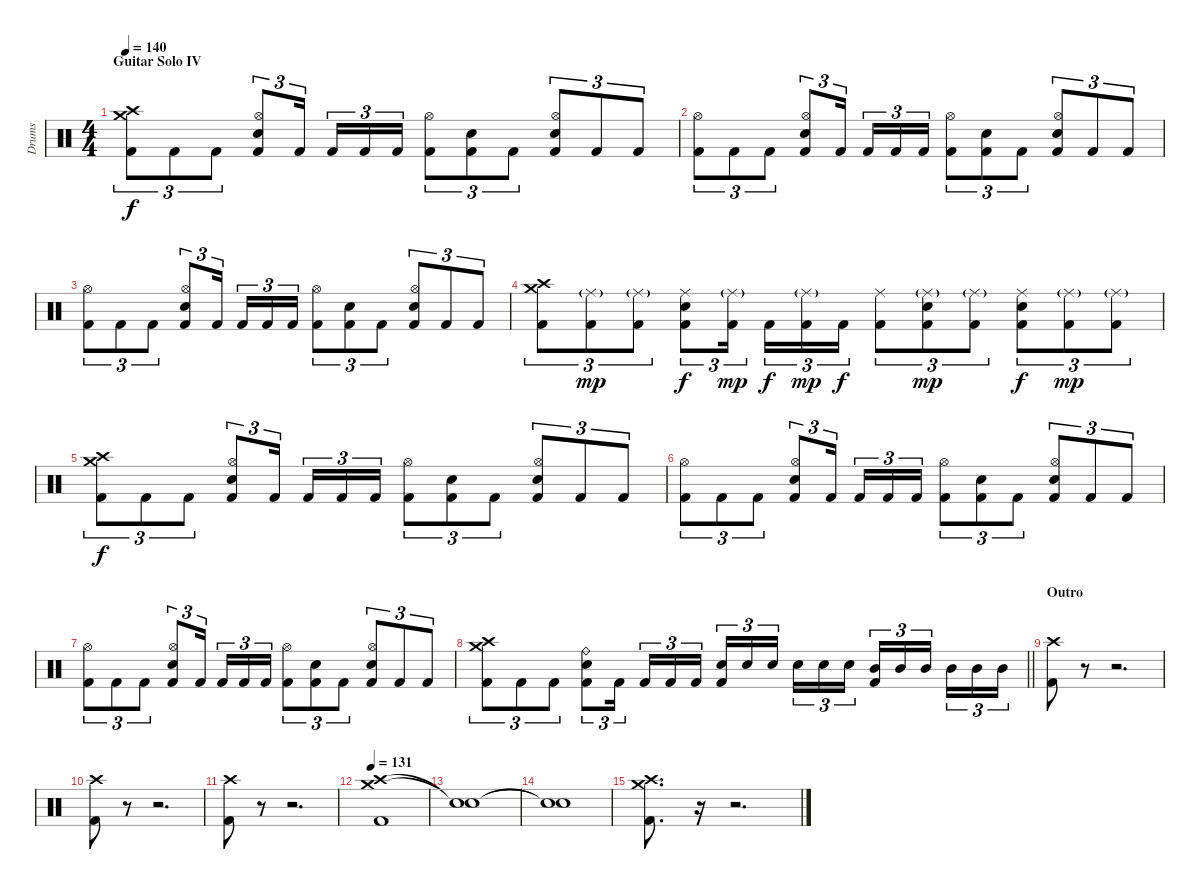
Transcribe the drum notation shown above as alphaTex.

\track ("Drums" "Drums") {instrument percussion}
\staff {score}
\articulation defaults
\ts (4 4)
\section ("" "Guitar Solo IV")
\tempo 140
\clef neutral
\ks c
("Crash medium (hit)" "Crash high (hit)" "Kick (hit) 2").8{tu (3 2) dy f} "Kick (hit) 2".8{tu (3 2)} "Kick (hit) 2".8{tu (3 2)} ("Hi-Hat (open)" "Electric Snare (hit)" "Kick (hit) 2").8{tu (3 2)} "Kick (hit) 2".16{tu (3 2) beam splitsecondary} "Kick (hit) 2".16{tu (3 2)} "Kick (hit) 2".16{tu (3 2)} "Kick (hit) 2".16{tu (3 2)} ("Hi-Hat (open)" "Kick (hit) 2").8{tu (3 2)} ("Electric Snare (hit)" "Kick (hit) 2").8{tu (3 2)} "Kick (hit) 2".8{tu (3 2)} ("Hi-Hat (open)" "Electric Snare (hit)" "Kick (hit) 2").8{tu (3 2)} "Kick (hit) 2".8{tu (3 2)} "Kick (hit) 2".8{tu (3 2)} |
("Hi-Hat (open)" "Kick (hit) 2").8{tu (3 2)} "Kick (hit) 2".8{tu (3 2)} "Kick (hit) 2".8{tu (3 2)} ("Hi-Hat (open)" "Electric Snare (hit)" "Kick (hit) 2").8{tu (3 2)} "Kick (hit) 2".16{tu (3 2) beam splitsecondary} "Kick (hit) 2".16{tu (3 2)} "Kick (hit) 2".16{tu (3 2)} "Kick (hit) 2".16{tu (3 2)} ("Hi-Hat (open)" "Kick (hit) 2").8{tu (3 2)} ("Electric Snare (hit)" "Kick (hit) 2").8{tu (3 2)} "Kick (hit) 2".8{tu (3 2)} ("Hi-Hat (open)" "Electric Snare (hit)" "Kick (hit) 2").8{tu (3 2)} "Kick (hit) 2".8{tu (3 2)} "Kick (hit) 2".8{tu (3 2)} |
("Hi-Hat (open)" "Kick (hit) 2").8{tu (3 2)} "Kick (hit) 2".8{tu (3 2)} "Kick (hit) 2".8{tu (3 2)} ("Hi-Hat (open)" "Electric Snare (hit)" "Kick (hit) 2").8{tu (3 2)} "Kick (hit) 2".16{tu (3 2) beam splitsecondary} "Kick (hit) 2".16{tu (3 2)} "Kick (hit) 2".16{tu (3 2)} "Kick (hit) 2".16{tu (3 2)} ("Hi-Hat (open)" "Kick (hit) 2").8{tu (3 2)} ("Electric Snare (hit)" "Kick (hit) 2").8{tu (3 2)} "Kick (hit) 2".8{tu (3 2)} ("Hi-Hat (open)" "Electric Snare (hit)" "Kick (hit) 2").8{tu (3 2)} "Kick (hit) 2".8{tu (3 2)} "Kick (hit) 2".8{tu (3 2)} |
("Crash medium (hit)" "Crash high (hit)" "Kick (hit) 2").8{tu (3 2)} ("Ride (middle)"{g} "Kick (hit) 2").8{tu (3 2) dy mp} ("Ride (middle)"{g} "Kick (hit) 2").8{tu (3 2)} ("Ride (middle)" "Electric Snare (hit)" "Kick (hit) 2").8{tu (3 2) dy f} ("Ride (middle)"{g} "Kick (hit) 2").16{tu (3 2) dy mp beam splitsecondary} "Kick (hit) 2".16{tu (3 2) dy f} ("Ride (middle)"{g} "Kick (hit) 2").16{tu (3 2) dy mp} "Kick (hit) 2".16{tu (3 2) dy f} ("Ride (middle)" "Kick (hit) 2").8{tu (3 2)} ("Ride (middle)"{g} "Electric Snare (hit)" "Kick (hit) 2").8{tu (3 2) dy mp} ("Ride (middle)"{g} "Kick (hit) 2").8{tu (3 2)} ("Ride (middle)" "Electric Snare (hit)" "Kick (hit) 2").8{tu (3 2) dy f} ("Ride (middle)"{g} "Kick (hit) 2").8{tu (3 2) dy mp} ("Ride (middle)"{g} "Kick (hit) 2").8{tu (3 2)} |
("Crash medium (hit)" "Crash high (hit)" "Kick (hit) 2").8{tu (3 2) dy f} "Kick (hit) 2".8{tu (3 2)} "Kick (hit) 2".8{tu (3 2)} ("Hi-Hat (open)" "Electric Snare (hit)" "Kick (hit) 2").8{tu (3 2)} "Kick (hit) 2".16{tu (3 2) beam splitsecondary} "Kick (hit) 2".16{tu (3 2)} "Kick (hit) 2".16{tu (3 2)} "Kick (hit) 2".16{tu (3 2)} ("Hi-Hat (open)" "Kick (hit) 2").8{tu (3 2)} ("Electric Snare (hit)" "Kick (hit) 2").8{tu (3 2)} "Kick (hit) 2".8{tu (3 2)} ("Hi-Hat (open)" "Electric Snare (hit)" "Kick (hit) 2").8{tu (3 2)} "Kick (hit) 2".8{tu (3 2)} "Kick (hit) 2".8{tu (3 2)} |
("Hi-Hat (open)" "Kick (hit) 2").8{tu (3 2)} "Kick (hit) 2".8{tu (3 2)} "Kick (hit) 2".8{tu (3 2)} ("Hi-Hat (open)" "Electric Snare (hit)" "Kick (hit) 2").8{tu (3 2)} "Kick (hit) 2".16{tu (3 2) beam splitsecondary} "Kick (hit) 2".16{tu (3 2)} "Kick (hit) 2".16{tu (3 2)} "Kick (hit) 2".16{tu (3 2)} ("Hi-Hat (open)" "Kick (hit) 2").8{tu (3 2)} ("Electric Snare (hit)" "Kick (hit) 2").8{tu (3 2)} "Kick (hit) 2".8{tu (3 2)} ("Hi-Hat (open)" "Electric Snare (hit)" "Kick (hit) 2").8{tu (3 2)} "Kick (hit) 2".8{tu (3 2)} "Kick (hit) 2".8{tu (3 2)} |
("Hi-Hat (open)" "Kick (hit) 2").8{tu (3 2)} "Kick (hit) 2".8{tu (3 2)} "Kick (hit) 2".8{tu (3 2)} ("Hi-Hat (open)" "Electric Snare (hit)" "Kick (hit) 2").8{tu (3 2)} "Kick (hit) 2".16{tu (3 2) beam splitsecondary} "Kick (hit) 2".16{tu (3 2)} "Kick (hit) 2".16{tu (3 2)} "Kick (hit) 2".16{tu (3 2)} ("Hi-Hat (open)" "Kick (hit) 2").8{tu (3 2)} ("Electric Snare (hit)" "Kick (hit) 2").8{tu (3 2)} "Kick (hit) 2".8{tu (3 2)} ("Hi-Hat (open)" "Electric Snare (hit)" "Kick (hit) 2").8{tu (3 2)} "Kick (hit) 2".8{tu (3 2)} "Kick (hit) 2".8{tu (3 2)} |
\barLineRight lightlight
("Crash medium (hit)" "Crash high (hit)" "Kick (hit) 2").8{tu (3 2)} "Kick (hit) 2".8{tu (3 2)} "Kick (hit) 2".8{tu (3 2)} ("Ride (bell)" "Electric Snare (hit)" "Kick (hit) 2").8{tu (3 2)} "Kick (hit) 2".16{tu (3 2) beam splitsecondary} "Kick (hit) 2".16{tu (3 2)} "Kick (hit) 2".16{tu (3 2)} "Kick (hit) 2".16{tu (3 2)} ("Electric Snare (hit)" "Kick (hit) 2").16{tu (3 2)} "Electric Snare (hit)".16{tu (3 2)} "Electric Snare (hit)".16{tu (3 2) beam splitsecondary} "Electric Snare (hit)".16{tu (3 2)} "Electric Snare (hit)".16{tu (3 2)} "Electric Snare (hit)".16{tu (3 2)} ("Mid Tom (hit)" "Kick (hit) 2").16{tu (3 2)} "Mid Tom (hit)".16{tu (3 2)} "Mid Tom (hit)".16{tu (3 2) beam splitsecondary} "Mid Tom (hit)".16{tu (3 2)} "Mid Tom (hit)".16{tu (3 2)} "Mid Tom (hit)".16{tu (3 2)} |
\section ("" "Outro")
("Crash high (hit)" "Kick (hit) 2").8 r.8{volume 0} r.2{d} |
("Crash high (hit)" "Kick (hit) 2").8{volume 14} r.8{volume 0} r.2{d} |
("Crash high (hit)" "Kick (hit) 2").8{volume 14} r.8{volume 0} r.2{d} |
\tempo 131
("Crash medium (hit)" "Crash high (hit)" "Kick (hit) 2").1{volume 14} |
("Snare (hit)"{t} "Snare (hit)"{t}).1 |
("Snare (hit)"{t} "Snare (hit)"{t}).1 |
("Crash medium (hit)" "Crash high (hit)" "Kick (hit) 2").8{d} r.16{volume 0} r.2{d}
